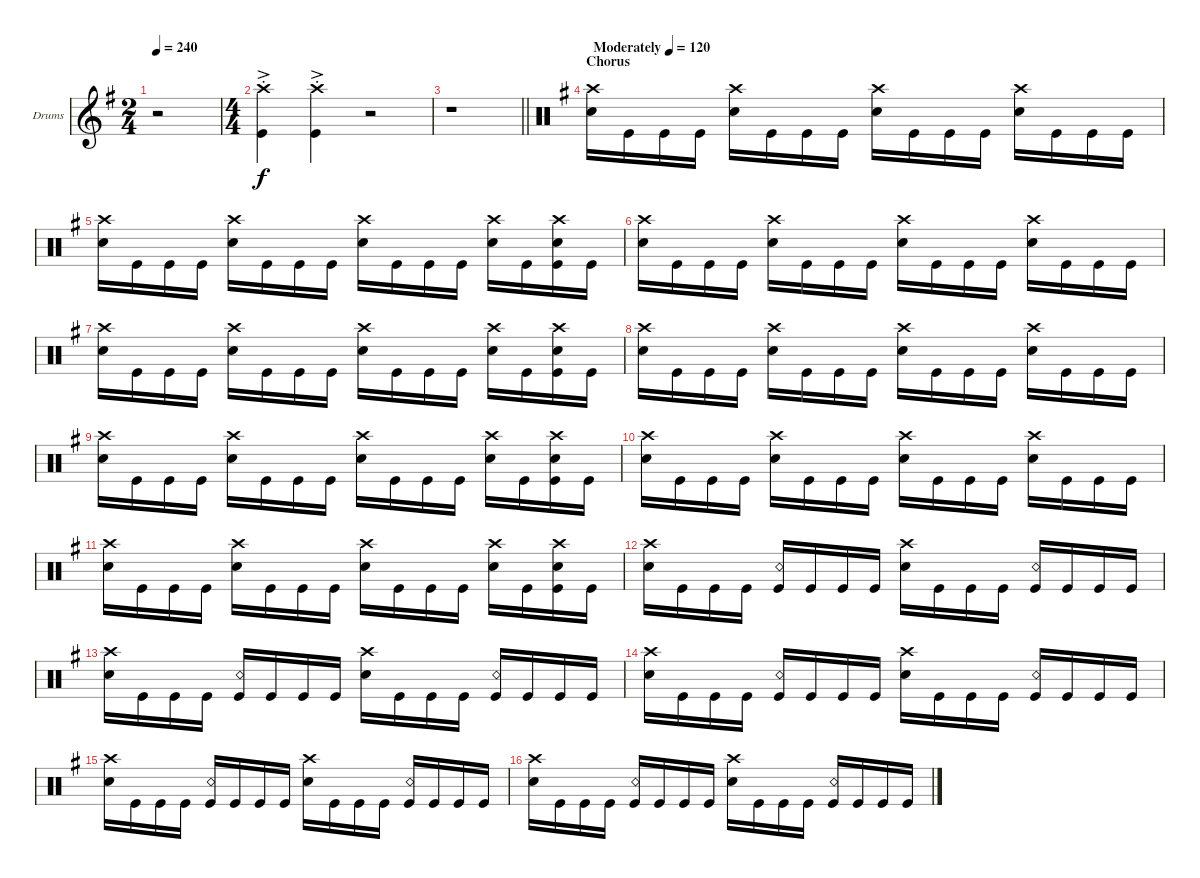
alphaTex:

\defaultSystemsLayout 4
\bracketExtendMode groupsimilarinstruments
\firstSystemTrackNameOrientation horizontal
\otherSystemsTrackNameOrientation horizontal
\track ("Drums" "Drums") {instrument percussion}
\staff {score}
\articulation defaults
\ts (2 4)
\tempo 240
\clef g2
\ks g
r.2{dy f} |
\ts (4 4)
("Kick (hit)"{ac st} "Crash high (hit)"{ac st}).4 ("Kick (hit)"{ac st} "Crash high (hit)"{ac st}).4 r.2 |
\barLineRight lightlight
r.1 |
\section ("" "Chorus")
\tempo (120 "Moderately")
\clef neutral
("Snare (hit) 2" "Crash high (hit)").16 "Kick (hit)".16 "Kick (hit)".16 "Kick (hit)".16 ("Snare (hit) 2" "Crash high (hit)").16 "Kick (hit)".16 "Kick (hit)".16 "Kick (hit)".16 ("Snare (hit) 2" "Crash high (hit)").16 "Kick (hit)".16 "Kick (hit)".16 "Kick (hit)".16 ("Snare (hit) 2" "Crash high (hit)").16 "Kick (hit)".16 "Kick (hit)".16 "Kick (hit)".16 |
("Snare (hit) 2" "Crash high (hit)").16 "Kick (hit)".16 "Kick (hit)".16 "Kick (hit)".16 ("Snare (hit) 2" "Crash high (hit)").16 "Kick (hit)".16 "Kick (hit)".16 "Kick (hit)".16 ("Snare (hit) 2" "Crash high (hit)").16 "Kick (hit)".16 "Kick (hit)".16 "Kick (hit)".16 ("Snare (hit) 2" "Crash high (hit)").16 "Kick (hit)".16 ("Kick (hit)" "Snare (hit) 2" "Crash high (hit)").16 "Kick (hit)".16 |
("Snare (hit) 2" "Crash high (hit)").16 "Kick (hit)".16 "Kick (hit)".16 "Kick (hit)".16 ("Snare (hit) 2" "Crash high (hit)").16 "Kick (hit)".16 "Kick (hit)".16 "Kick (hit)".16 ("Snare (hit) 2" "Crash high (hit)").16 "Kick (hit)".16 "Kick (hit)".16 "Kick (hit)".16 ("Snare (hit) 2" "Crash high (hit)").16 "Kick (hit)".16 "Kick (hit)".16 "Kick (hit)".16 |
("Snare (hit) 2" "Crash high (hit)").16 "Kick (hit)".16 "Kick (hit)".16 "Kick (hit)".16 ("Snare (hit) 2" "Crash high (hit)").16 "Kick (hit)".16 "Kick (hit)".16 "Kick (hit)".16 ("Snare (hit) 2" "Crash high (hit)").16 "Kick (hit)".16 "Kick (hit)".16 "Kick (hit)".16 ("Snare (hit) 2" "Crash high (hit)").16 "Kick (hit)".16 ("Kick (hit)" "Snare (hit) 2" "Crash high (hit)").16 "Kick (hit)".16 |
("Snare (hit) 2" "Crash high (hit)").16 "Kick (hit)".16 "Kick (hit)".16 "Kick (hit)".16 ("Snare (hit) 2" "Crash high (hit)").16 "Kick (hit)".16 "Kick (hit)".16 "Kick (hit)".16 ("Snare (hit) 2" "Crash high (hit)").16 "Kick (hit)".16 "Kick (hit)".16 "Kick (hit)".16 ("Snare (hit) 2" "Crash high (hit)").16 "Kick (hit)".16 "Kick (hit)".16 "Kick (hit)".16 |
("Snare (hit) 2" "Crash high (hit)").16 "Kick (hit)".16 "Kick (hit)".16 "Kick (hit)".16 ("Snare (hit) 2" "Crash high (hit)").16 "Kick (hit)".16 "Kick (hit)".16 "Kick (hit)".16 ("Snare (hit) 2" "Crash high (hit)").16 "Kick (hit)".16 "Kick (hit)".16 "Kick (hit)".16 ("Snare (hit) 2" "Crash high (hit)").16 "Kick (hit)".16 ("Kick (hit)" "Snare (hit) 2" "Crash high (hit)").16 "Kick (hit)".16 |
("Snare (hit) 2" "Crash high (hit)").16 "Kick (hit)".16 "Kick (hit)".16 "Kick (hit)".16 ("Snare (hit) 2" "Crash high (hit)").16 "Kick (hit)".16 "Kick (hit)".16 "Kick (hit)".16 ("Snare (hit) 2" "Crash high (hit)").16 "Kick (hit)".16 "Kick (hit)".16 "Kick (hit)".16 ("Snare (hit) 2" "Crash high (hit)").16 "Kick (hit)".16 "Kick (hit)".16 "Kick (hit)".16 |
("Snare (hit) 2" "Crash high (hit)").16 "Kick (hit)".16 "Kick (hit)".16 "Kick (hit)".16 ("Snare (hit) 2" "Crash high (hit)").16 "Kick (hit)".16 "Kick (hit)".16 "Kick (hit)".16 ("Snare (hit) 2" "Crash high (hit)").16 "Kick (hit)".16 "Kick (hit)".16 "Kick (hit)".16 ("Snare (hit) 2" "Crash high (hit)").16 "Kick (hit)".16 ("Kick (hit)" "Snare (hit) 2" "Crash high (hit)").16 "Kick (hit)".16 |
("Snare (hit) 2" "Crash high (hit)").16 "Kick (hit)".16 "Kick (hit)".16 "Kick (hit)".16 ("Kick (hit)" "Snare (rim shot)").16 "Kick (hit)".16 "Kick (hit)".16 "Kick (hit)".16 ("Snare (hit) 2" "Crash high (hit)").16 "Kick (hit)".16 "Kick (hit)".16 "Kick (hit)".16 ("Kick (hit)" "Snare (rim shot)").16 "Kick (hit)".16 "Kick (hit)".16 "Kick (hit)".16 |
("Snare (hit) 2" "Crash high (hit)").16 "Kick (hit)".16 "Kick (hit)".16 "Kick (hit)".16 ("Kick (hit)" "Snare (rim shot)").16 "Kick (hit)".16 "Kick (hit)".16 "Kick (hit)".16 ("Snare (hit) 2" "Crash high (hit)").16 "Kick (hit)".16 "Kick (hit)".16 "Kick (hit)".16 ("Kick (hit)" "Snare (rim shot)").16 "Kick (hit)".16 "Kick (hit)".16 "Kick (hit)".16 |
("Snare (hit) 2" "Crash high (hit)").16 "Kick (hit)".16 "Kick (hit)".16 "Kick (hit)".16 ("Kick (hit)" "Snare (rim shot)").16 "Kick (hit)".16 "Kick (hit)".16 "Kick (hit)".16 ("Snare (hit) 2" "Crash high (hit)").16 "Kick (hit)".16 "Kick (hit)".16 "Kick (hit)".16 ("Kick (hit)" "Snare (rim shot)").16 "Kick (hit)".16 "Kick (hit)".16 "Kick (hit)".16 |
("Snare (hit) 2" "Crash high (hit)").16 "Kick (hit)".16 "Kick (hit)".16 "Kick (hit)".16 ("Kick (hit)" "Snare (rim shot)").16 "Kick (hit)".16 "Kick (hit)".16 "Kick (hit)".16 ("Snare (hit) 2" "Crash high (hit)").16 "Kick (hit)".16 "Kick (hit)".16 "Kick (hit)".16 ("Kick (hit)" "Snare (rim shot)").16 "Kick (hit)".16 "Kick (hit)".16 "Kick (hit)".16 |
("Snare (hit) 2" "Crash high (hit)").16 "Kick (hit)".16 "Kick (hit)".16 "Kick (hit)".16 ("Kick (hit)" "Snare (rim shot)").16 "Kick (hit)".16 "Kick (hit)".16 "Kick (hit)".16 ("Snare (hit) 2" "Crash high (hit)").16 "Kick (hit)".16 "Kick (hit)".16 "Kick (hit)".16 ("Kick (hit)" "Snare (rim shot)").16 "Kick (hit)".16 "Kick (hit)".16 "Kick (hit)".16
